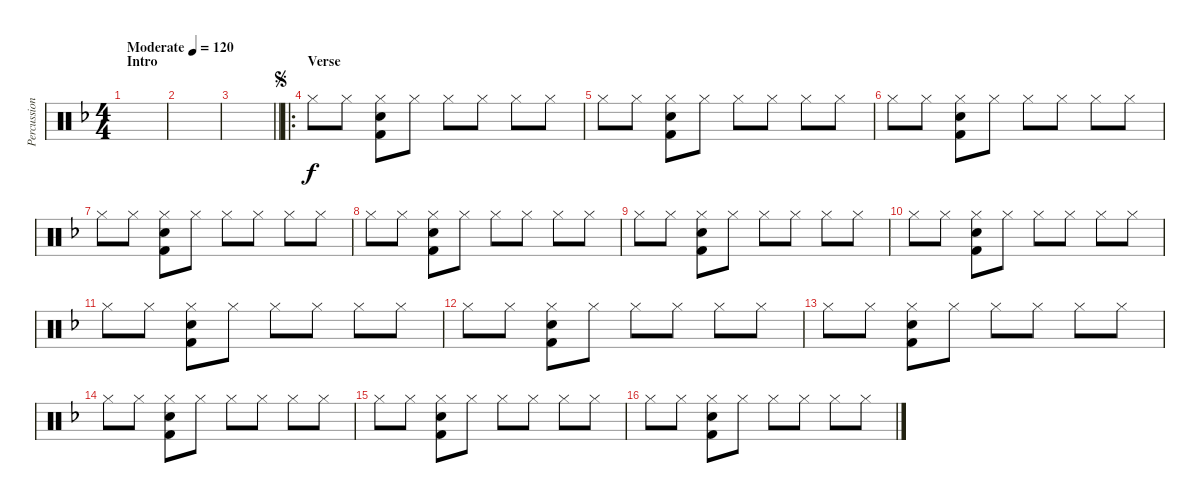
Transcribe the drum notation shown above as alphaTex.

\track ("Percussion" "Percussion") {instrument percussion}
\staff {score}
\articulation defaults
\ts (4 4)
\section ("" "Intro")
\tempo (120 "Moderate")
\clef neutral
\ks f
|
|
\barLineRight lightlight
|
\ro
\section ("" "Verse")
\jump segno "Hi-Hat (closed)".8 "Hi-Hat (closed)".8
("Hi-Hat (closed)" "Snare (hit) 2" "Kick (hit) 2").8 "Hi-Hat (closed)".8 "Hi-Hat (closed)".8 "Hi-Hat (closed)".8 "Hi-Hat (closed)".8 "Hi-Hat (closed)".8 |
"Hi-Hat (closed)".8 "Hi-Hat (closed)".8 ("Hi-Hat (closed)" "Snare (hit) 2" "Kick (hit) 2").8 "Hi-Hat (closed)".8 "Hi-Hat (closed)".8 "Hi-Hat (closed)".8 "Hi-Hat (closed)".8 "Hi-Hat (closed)".8 |
"Hi-Hat (closed)".8 "Hi-Hat (closed)".8 ("Hi-Hat (closed)" "Snare (hit) 2" "Kick (hit) 2").8 "Hi-Hat (closed)".8 "Hi-Hat (closed)".8 "Hi-Hat (closed)".8 "Hi-Hat (closed)".8 "Hi-Hat (closed)".8 |
"Hi-Hat (closed)".8 "Hi-Hat (closed)".8 ("Hi-Hat (closed)" "Snare (hit) 2" "Kick (hit) 2").8 "Hi-Hat (closed)".8 "Hi-Hat (closed)".8 "Hi-Hat (closed)".8 "Hi-Hat (closed)".8 "Hi-Hat (closed)".8 |
"Hi-Hat (closed)".8 "Hi-Hat (closed)".8 ("Hi-Hat (closed)" "Snare (hit) 2" "Kick (hit) 2").8 "Hi-Hat (closed)".8 "Hi-Hat (closed)".8 "Hi-Hat (closed)".8 "Hi-Hat (closed)".8 "Hi-Hat (closed)".8 |
"Hi-Hat (closed)".8 "Hi-Hat (closed)".8 ("Hi-Hat (closed)" "Snare (hit) 2" "Kick (hit) 2").8 "Hi-Hat (closed)".8 "Hi-Hat (closed)".8 "Hi-Hat (closed)".8 "Hi-Hat (closed)".8 "Hi-Hat (closed)".8 |
"Hi-Hat (closed)".8 "Hi-Hat (closed)".8 ("Hi-Hat (closed)" "Snare (hit) 2" "Kick (hit) 2").8 "Hi-Hat (closed)".8 "Hi-Hat (closed)".8 "Hi-Hat (closed)".8 "Hi-Hat (closed)".8 "Hi-Hat (closed)".8 |
"Hi-Hat (closed)".8 "Hi-Hat (closed)".8 ("Hi-Hat (closed)" "Snare (hit) 2" "Kick (hit) 2").8 "Hi-Hat (closed)".8 "Hi-Hat (closed)".8 "Hi-Hat (closed)".8 "Hi-Hat (closed)".8 "Hi-Hat (closed)".8 |
"Hi-Hat (closed)".8 "Hi-Hat (closed)".8 ("Hi-Hat (closed)" "Snare (hit) 2" "Kick (hit) 2").8 "Hi-Hat (closed)".8 "Hi-Hat (closed)".8 "Hi-Hat (closed)".8 "Hi-Hat (closed)".8 "Hi-Hat (closed)".8 |
"Hi-Hat (closed)".8 "Hi-Hat (closed)".8 ("Hi-Hat (closed)" "Snare (hit) 2" "Kick (hit) 2").8 "Hi-Hat (closed)".8 "Hi-Hat (closed)".8 "Hi-Hat (closed)".8 "Hi-Hat (closed)".8 "Hi-Hat (closed)".8 |
"Hi-Hat (closed)".8 "Hi-Hat (closed)".8 ("Hi-Hat (closed)" "Snare (hit) 2" "Kick (hit) 2").8 "Hi-Hat (closed)".8 "Hi-Hat (closed)".8 "Hi-Hat (closed)".8 "Hi-Hat (closed)".8 "Hi-Hat (closed)".8 |
"Hi-Hat (closed)".8 "Hi-Hat (closed)".8 ("Hi-Hat (closed)" "Snare (hit) 2" "Kick (hit) 2").8 "Hi-Hat (closed)".8 "Hi-Hat (closed)".8 "Hi-Hat (closed)".8 "Hi-Hat (closed)".8 "Hi-Hat (closed)".8 |
"Hi-Hat (closed)".8 "Hi-Hat (closed)".8 ("Hi-Hat (closed)" "Snare (hit) 2" "Kick (hit) 2").8 "Hi-Hat (closed)".8 "Hi-Hat (closed)".8 "Hi-Hat (closed)".8 "Hi-Hat (closed)".8 "Hi-Hat (closed)".8
